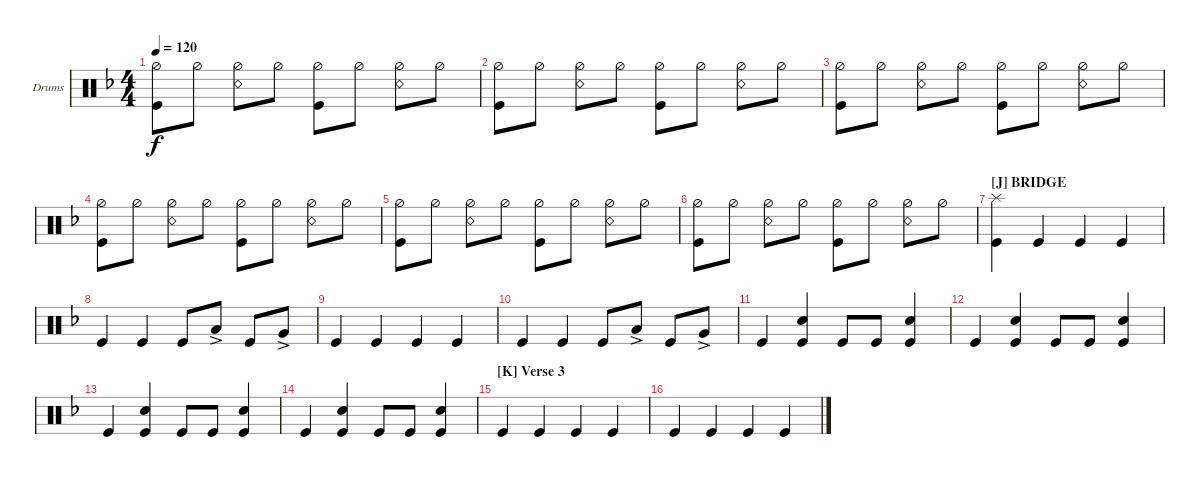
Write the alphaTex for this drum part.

\bracketExtendMode groupsimilarinstruments
\firstSystemTrackNameOrientation horizontal
\otherSystemsTrackNameOrientation horizontal
\track ("Drumkit" "Drums") {instrument percussion}
\staff {score}
\articulation defaults
\ts (4 4)
\tempo 120
\clef neutral
\ks f
("Kick (hit)" "Hi-Hat (half)").8{dy f} "Hi-Hat (half)".8 ("Hi-Hat (half)" "Snare (rim shot)").8 "Hi-Hat (half)".8 ("Hi-Hat (half)" "Kick (hit)").8 "Hi-Hat (half)".8 ("Hi-Hat (half)" "Snare (rim shot)").8 "Hi-Hat (half)".8 |
("Kick (hit)" "Hi-Hat (half)").8 "Hi-Hat (half)".8 ("Hi-Hat (half)" "Snare (rim shot)").8 "Hi-Hat (half)".8 ("Hi-Hat (half)" "Kick (hit)").8 "Hi-Hat (half)".8 ("Hi-Hat (half)" "Snare (rim shot)").8 "Hi-Hat (half)".8 |
("Kick (hit)" "Hi-Hat (half)").8 "Hi-Hat (half)".8 ("Hi-Hat (half)" "Snare (rim shot)").8 "Hi-Hat (half)".8 ("Hi-Hat (half)" "Kick (hit)").8 "Hi-Hat (half)".8 ("Hi-Hat (half)" "Snare (rim shot)").8 "Hi-Hat (half)".8 |
("Kick (hit)" "Hi-Hat (half)").8 "Hi-Hat (half)".8 ("Hi-Hat (half)" "Snare (rim shot)").8 "Hi-Hat (half)".8 ("Hi-Hat (half)" "Kick (hit)").8 "Hi-Hat (half)".8 ("Hi-Hat (half)" "Snare (rim shot)").8 "Hi-Hat (half)".8 |
("Kick (hit)" "Hi-Hat (half)").8 "Hi-Hat (half)".8 ("Hi-Hat (half)" "Snare (rim shot)").8 "Hi-Hat (half)".8 ("Hi-Hat (half)" "Kick (hit)").8 "Hi-Hat (half)".8 ("Hi-Hat (half)" "Snare (rim shot)").8 "Hi-Hat (half)".8 |
("Kick (hit)" "Hi-Hat (half)").8 "Hi-Hat (half)".8 ("Hi-Hat (half)" "Snare (rim shot)").8 "Hi-Hat (half)".8 ("Hi-Hat (half)" "Kick (hit)").8 "Hi-Hat (half)".8 ("Hi-Hat (half)" "Snare (rim shot)").8 "Hi-Hat (half)".8 |
\section ("J" "BRIDGE")
("Kick (hit)" "Splash (hit)").4 "Kick (hit)".4 "Kick (hit)".4 "Kick (hit)".4 |
"Kick (hit)".4 "Kick (hit)".4 "Kick (hit)".8 "Low Tom (hit)"{ac}.8 "Kick (hit)".8 "Very Low Tom (hit)"{ac}.8 |
"Kick (hit)".4 "Kick (hit)".4 "Kick (hit)".4 "Kick (hit)".4 |
"Kick (hit)".4 "Kick (hit)".4 "Kick (hit)".8 "Low Tom (hit)"{ac}.8 "Kick (hit)".8 "Very Low Tom (hit)"{ac}.8 |
"Kick (hit)".4 ("Kick (hit)" "Snare (hit) 2").4 "Kick (hit)".8 "Kick (hit)".8 ("Kick (hit)" "Snare (hit) 2").4 |
"Kick (hit)".4 ("Kick (hit)" "Snare (hit) 2").4 "Kick (hit)".8 "Kick (hit)".8 ("Kick (hit)" "Snare (hit) 2").4 |
"Kick (hit)".4 ("Kick (hit)" "Snare (hit) 2").4 "Kick (hit)".8 "Kick (hit)".8 ("Kick (hit)" "Snare (hit) 2").4 |
"Kick (hit)".4 ("Kick (hit)" "Snare (hit) 2").4 "Kick (hit)".8 "Kick (hit)".8 ("Kick (hit)" "Snare (hit) 2").4 |
\section ("K" "Verse 3")
"Kick (hit)".4 "Kick (hit)".4 "Kick (hit)".4 "Kick (hit)".4 |
"Kick (hit)".4 "Kick (hit)".4 "Kick (hit)".4 "Kick (hit)".4
